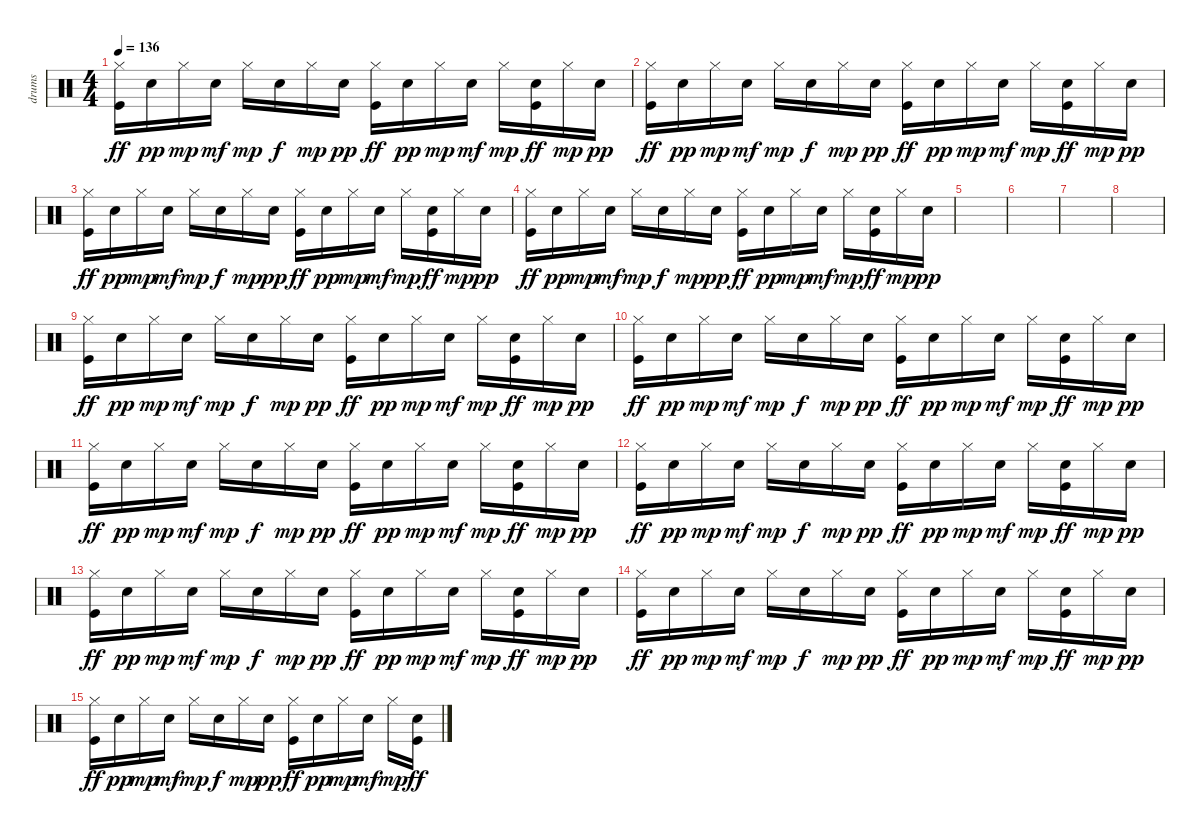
\track ("drums" "drums") {instrument percussion}
\staff {score}
\articulation defaults
\ts (4 4)
\tempo 136
\clef neutral
\ks c
("Hi-Hat (closed)" "Kick (hit)").16{dy ff} "Snare (hit) 2".16{dy pp} "Hi-Hat (closed)".16{dy mp} "Snare (hit) 2".16{dy mf} "Hi-Hat (closed)".16{dy mp} "Snare (hit) 2".16{dy f} "Hi-Hat (closed)".16{dy mp} "Snare (hit) 2".16{dy pp} ("Hi-Hat (closed)" "Kick (hit)").16{dy ff} "Snare (hit) 2".16{dy pp} "Hi-Hat (closed)".16{dy mp} "Snare (hit) 2".16{dy mf} "Hi-Hat (closed)".16{dy mp} ("Snare (hit) 2" "Kick (hit)").16{dy ff} "Hi-Hat (closed)".16{dy mp} "Snare (hit) 2".16{dy pp} |
("Hi-Hat (closed)" "Kick (hit)").16{dy ff} "Snare (hit) 2".16{dy pp} "Hi-Hat (closed)".16{dy mp} "Snare (hit) 2".16{dy mf} "Hi-Hat (closed)".16{dy mp} "Snare (hit) 2".16{dy f} "Hi-Hat (closed)".16{dy mp} "Snare (hit) 2".16{dy pp} ("Hi-Hat (closed)" "Kick (hit)").16{dy ff} "Snare (hit) 2".16{dy pp} "Hi-Hat (closed)".16{dy mp} "Snare (hit) 2".16{dy mf} "Hi-Hat (closed)".16{dy mp} ("Snare (hit) 2" "Kick (hit)").16{dy ff} "Hi-Hat (closed)".16{dy mp} "Snare (hit) 2".16{dy pp} |
("Hi-Hat (closed)" "Kick (hit)").16{dy ff} "Snare (hit) 2".16{dy pp} "Hi-Hat (closed)".16{dy mp} "Snare (hit) 2".16{dy mf} "Hi-Hat (closed)".16{dy mp} "Snare (hit) 2".16{dy f} "Hi-Hat (closed)".16{dy mp} "Snare (hit) 2".16{dy pp} ("Hi-Hat (closed)" "Kick (hit)").16{dy ff} "Snare (hit) 2".16{dy pp} "Hi-Hat (closed)".16{dy mp} "Snare (hit) 2".16{dy mf} "Hi-Hat (closed)".16{dy mp} ("Snare (hit) 2" "Kick (hit)").16{dy ff} "Hi-Hat (closed)".16{dy mp} "Snare (hit) 2".16{dy pp} |
("Hi-Hat (closed)" "Kick (hit)").16{dy ff} "Snare (hit) 2".16{dy pp} "Hi-Hat (closed)".16{dy mp} "Snare (hit) 2".16{dy mf} "Hi-Hat (closed)".16{dy mp} "Snare (hit) 2".16{dy f} "Hi-Hat (closed)".16{dy mp} "Snare (hit) 2".16{dy pp} ("Hi-Hat (closed)" "Kick (hit)").16{dy ff} "Snare (hit) 2".16{dy pp} "Hi-Hat (closed)".16{dy mp} "Snare (hit) 2".16{dy mf} "Hi-Hat (closed)".16{dy mp} ("Snare (hit) 2" "Kick (hit)").16{dy ff} "Hi-Hat (closed)".16{dy mp} "Snare (hit) 2".16{dy pp} |
|
|
|
|
("Hi-Hat (closed)" "Kick (hit)").16{dy ff} "Snare (hit) 2".16{dy pp} "Hi-Hat (closed)".16{dy mp} "Snare (hit) 2".16{dy mf} "Hi-Hat (closed)".16{dy mp} "Snare (hit) 2".16{dy f} "Hi-Hat (closed)".16{dy mp} "Snare (hit) 2".16{dy pp} ("Hi-Hat (closed)" "Kick (hit)").16{dy ff} "Snare (hit) 2".16{dy pp} "Hi-Hat (closed)".16{dy mp} "Snare (hit) 2".16{dy mf} "Hi-Hat (closed)".16{dy mp} ("Snare (hit) 2" "Kick (hit)").16{dy ff} "Hi-Hat (closed)".16{dy mp} "Snare (hit) 2".16{dy pp} |
("Hi-Hat (closed)" "Kick (hit)").16{dy ff} "Snare (hit) 2".16{dy pp} "Hi-Hat (closed)".16{dy mp} "Snare (hit) 2".16{dy mf} "Hi-Hat (closed)".16{dy mp} "Snare (hit) 2".16{dy f} "Hi-Hat (closed)".16{dy mp} "Snare (hit) 2".16{dy pp} ("Hi-Hat (closed)" "Kick (hit)").16{dy ff} "Snare (hit) 2".16{dy pp} "Hi-Hat (closed)".16{dy mp} "Snare (hit) 2".16{dy mf} "Hi-Hat (closed)".16{dy mp} ("Snare (hit) 2" "Kick (hit)").16{dy ff} "Hi-Hat (closed)".16{dy mp} "Snare (hit) 2".16{dy pp} |
("Hi-Hat (closed)" "Kick (hit)").16{dy ff} "Snare (hit) 2".16{dy pp} "Hi-Hat (closed)".16{dy mp} "Snare (hit) 2".16{dy mf} "Hi-Hat (closed)".16{dy mp} "Snare (hit) 2".16{dy f} "Hi-Hat (closed)".16{dy mp} "Snare (hit) 2".16{dy pp} ("Hi-Hat (closed)" "Kick (hit)").16{dy ff} "Snare (hit) 2".16{dy pp} "Hi-Hat (closed)".16{dy mp} "Snare (hit) 2".16{dy mf} "Hi-Hat (closed)".16{dy mp} ("Snare (hit) 2" "Kick (hit)").16{dy ff} "Hi-Hat (closed)".16{dy mp} "Snare (hit) 2".16{dy pp} |
("Hi-Hat (closed)" "Kick (hit)").16{dy ff} "Snare (hit) 2".16{dy pp} "Hi-Hat (closed)".16{dy mp} "Snare (hit) 2".16{dy mf} "Hi-Hat (closed)".16{dy mp} "Snare (hit) 2".16{dy f} "Hi-Hat (closed)".16{dy mp} "Snare (hit) 2".16{dy pp} ("Hi-Hat (closed)" "Kick (hit)").16{dy ff} "Snare (hit) 2".16{dy pp} "Hi-Hat (closed)".16{dy mp} "Snare (hit) 2".16{dy mf} "Hi-Hat (closed)".16{dy mp} ("Snare (hit) 2" "Kick (hit)").16{dy ff} "Hi-Hat (closed)".16{dy mp} "Snare (hit) 2".16{dy pp} |
("Hi-Hat (closed)" "Kick (hit)").16{dy ff} "Snare (hit) 2".16{dy pp} "Hi-Hat (closed)".16{dy mp} "Snare (hit) 2".16{dy mf} "Hi-Hat (closed)".16{dy mp} "Snare (hit) 2".16{dy f} "Hi-Hat (closed)".16{dy mp} "Snare (hit) 2".16{dy pp} ("Hi-Hat (closed)" "Kick (hit)").16{dy ff} "Snare (hit) 2".16{dy pp} "Hi-Hat (closed)".16{dy mp} "Snare (hit) 2".16{dy mf} "Hi-Hat (closed)".16{dy mp} ("Snare (hit) 2" "Kick (hit)").16{dy ff} "Hi-Hat (closed)".16{dy mp} "Snare (hit) 2".16{dy pp} |
("Hi-Hat (closed)" "Kick (hit)").16{dy ff} "Snare (hit) 2".16{dy pp} "Hi-Hat (closed)".16{dy mp} "Snare (hit) 2".16{dy mf} "Hi-Hat (closed)".16{dy mp} "Snare (hit) 2".16{dy f} "Hi-Hat (closed)".16{dy mp} "Snare (hit) 2".16{dy pp} ("Hi-Hat (closed)" "Kick (hit)").16{dy ff} "Snare (hit) 2".16{dy pp} "Hi-Hat (closed)".16{dy mp} "Snare (hit) 2".16{dy mf} "Hi-Hat (closed)".16{dy mp} ("Snare (hit) 2" "Kick (hit)").16{dy ff} "Hi-Hat (closed)".16{dy mp} "Snare (hit) 2".16{dy pp} |
("Hi-Hat (closed)" "Kick (hit)").16{dy ff} "Snare (hit) 2".16{dy pp} "Hi-Hat (closed)".16{dy mp} "Snare (hit) 2".16{dy mf} "Hi-Hat (closed)".16{dy mp} "Snare (hit) 2".16{dy f} "Hi-Hat (closed)".16{dy mp} "Snare (hit) 2".16{dy pp} ("Hi-Hat (closed)" "Kick (hit)").16{dy ff} "Snare (hit) 2".16{dy pp} "Hi-Hat (closed)".16{dy mp} "Snare (hit) 2".16{dy mf} "Hi-Hat (closed)".16{dy mp} ("Snare (hit) 2" "Kick (hit)").16{dy ff}
